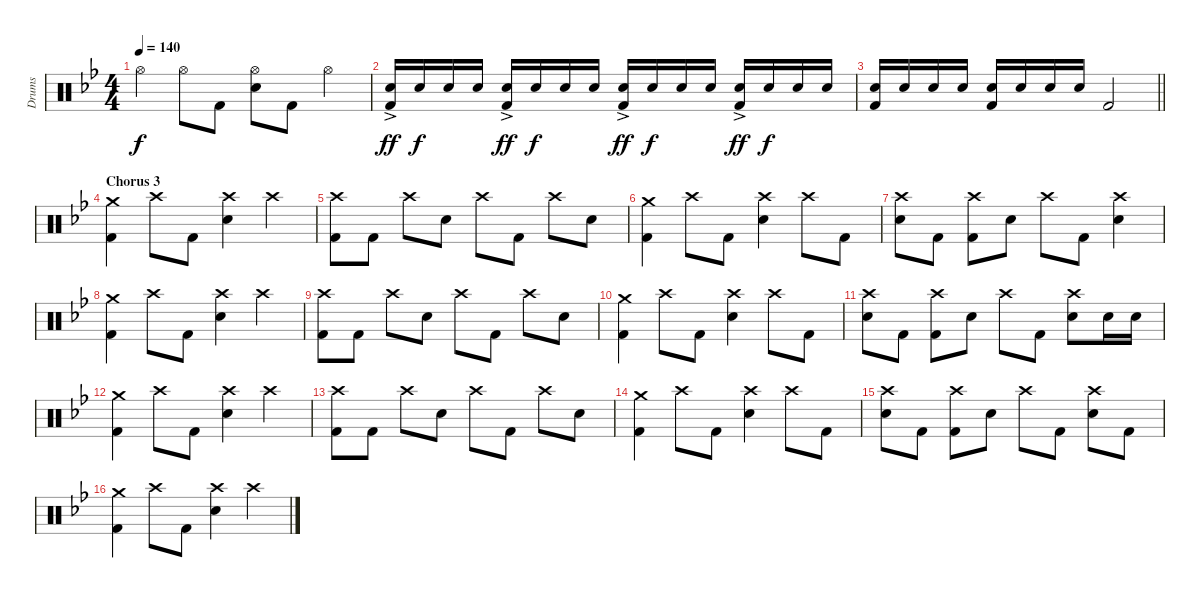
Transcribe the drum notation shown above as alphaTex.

\track ("Drums" "Drums") {instrument percussion}
\staff {score}
\articulation defaults
\ts (4 4)
\tempo 140
\clef neutral
\ks gminor "Hi-Hat (open)".4{dy f} "Hi-Hat (open)".8 "Kick (hit) 2".8
("Hi-Hat (open)" "Electric Snare (hit)").8 "Kick (hit) 2".8 "Hi-Hat (open)".4 |
("Electric Snare (hit)"{ac} "Kick (hit) 2").16{dy ff volume 7} "Electric Snare (hit)".16{dy f volume 15} "Electric Snare (hit)".16 "Electric Snare (hit)".16 ("Electric Snare (hit)"{ac} "Kick (hit) 2").16{dy ff} "Electric Snare (hit)".16{dy f} "Electric Snare (hit)".16 "Electric Snare (hit)".16 ("Electric Snare (hit)"{ac} "Kick (hit) 2").16{dy ff} "Electric Snare (hit)".16{dy f} "Electric Snare (hit)".16 "Electric Snare (hit)".16 ("Electric Snare (hit)"{ac} "Kick (hit) 2").16{dy ff} "Electric Snare (hit)".16{dy f} "Electric Snare (hit)".16 "Electric Snare (hit)".16 |
\barLineRight lightlight
("Electric Snare (hit)" "Kick (hit) 2").16 "Electric Snare (hit)".16 "Electric Snare (hit)".16 "Electric Snare (hit)".16 ("Electric Snare (hit)" "Kick (hit) 2").16 "Electric Snare (hit)".16 "Electric Snare (hit)".16 "Electric Snare (hit)".16 "Kick (hit) 2".2 |
\section ("" "Chorus 3")
("Crash medium (hit)" "Kick (hit) 2").4 "Crash high (hit)".8 "Kick (hit) 2".8 ("Crash high (hit)" "Electric Snare (hit)").4 "Crash high (hit)".4 |
("Crash high (hit)" "Kick (hit) 2").8 "Kick (hit) 2".8 "Crash high (hit)".8 "Electric Snare (hit)".8 "Crash high (hit)".8 "Kick (hit) 2".8 "Crash high (hit)".8 "Electric Snare (hit)".8 |
("Crash medium (hit)" "Kick (hit) 2").4 "Crash high (hit)".8 "Kick (hit) 2".8 ("Crash high (hit)" "Electric Snare (hit)").4 "Crash high (hit)".8 "Kick (hit) 2".8 |
("Crash high (hit)" "Electric Snare (hit)").8 "Kick (hit) 2".8 ("Crash high (hit)" "Kick (hit) 2").8 "Electric Snare (hit)".8 "Crash high (hit)".8 "Kick (hit) 2".8 ("Crash high (hit)" "Electric Snare (hit)").4 |
("Crash medium (hit)" "Kick (hit) 2").4 "Crash high (hit)".8 "Kick (hit) 2".8 ("Crash high (hit)" "Electric Snare (hit)").4 "Crash high (hit)".4 |
("Crash high (hit)" "Kick (hit) 2").8 "Kick (hit) 2".8 "Crash high (hit)".8 "Electric Snare (hit)".8 "Crash high (hit)".8 "Kick (hit) 2".8 "Crash high (hit)".8 "Electric Snare (hit)".8 |
("Crash medium (hit)" "Kick (hit) 2").4 "Crash high (hit)".8 "Kick (hit) 2".8 ("Crash high (hit)" "Electric Snare (hit)").4 "Crash high (hit)".8 "Kick (hit) 2".8 |
("Crash high (hit)" "Electric Snare (hit)").8 "Kick (hit) 2".8 ("Crash high (hit)" "Kick (hit) 2").8 "Electric Snare (hit)".8 "Crash high (hit)".8 "Kick (hit) 2".8 ("Crash high (hit)" "Electric Snare (hit)").8 "Electric Snare (hit)".16 "Electric Snare (hit)".16 |
("Crash medium (hit)" "Kick (hit) 2").4 "Crash high (hit)".8 "Kick (hit) 2".8 ("Crash high (hit)" "Electric Snare (hit)").4 "Crash high (hit)".4 |
("Crash high (hit)" "Kick (hit) 2").8 "Kick (hit) 2".8 "Crash high (hit)".8 "Electric Snare (hit)".8 "Crash high (hit)".8 "Kick (hit) 2".8 "Crash high (hit)".8 "Electric Snare (hit)".8 |
("Crash medium (hit)" "Kick (hit) 2").4 "Crash high (hit)".8 "Kick (hit) 2".8 ("Crash high (hit)" "Electric Snare (hit)").4 "Crash high (hit)".8 "Kick (hit) 2".8 |
("Crash high (hit)" "Electric Snare (hit)").8 "Kick (hit) 2".8 ("Crash high (hit)" "Kick (hit) 2").8 "Electric Snare (hit)".8 "Crash high (hit)".8 "Kick (hit) 2".8 ("Crash high (hit)" "Electric Snare (hit)").8 "Kick (hit) 2".8 |
("Crash medium (hit)" "Kick (hit) 2").4 "Crash high (hit)".8 "Kick (hit) 2".8 ("Crash high (hit)" "Electric Snare (hit)").4 "Crash high (hit)".4
